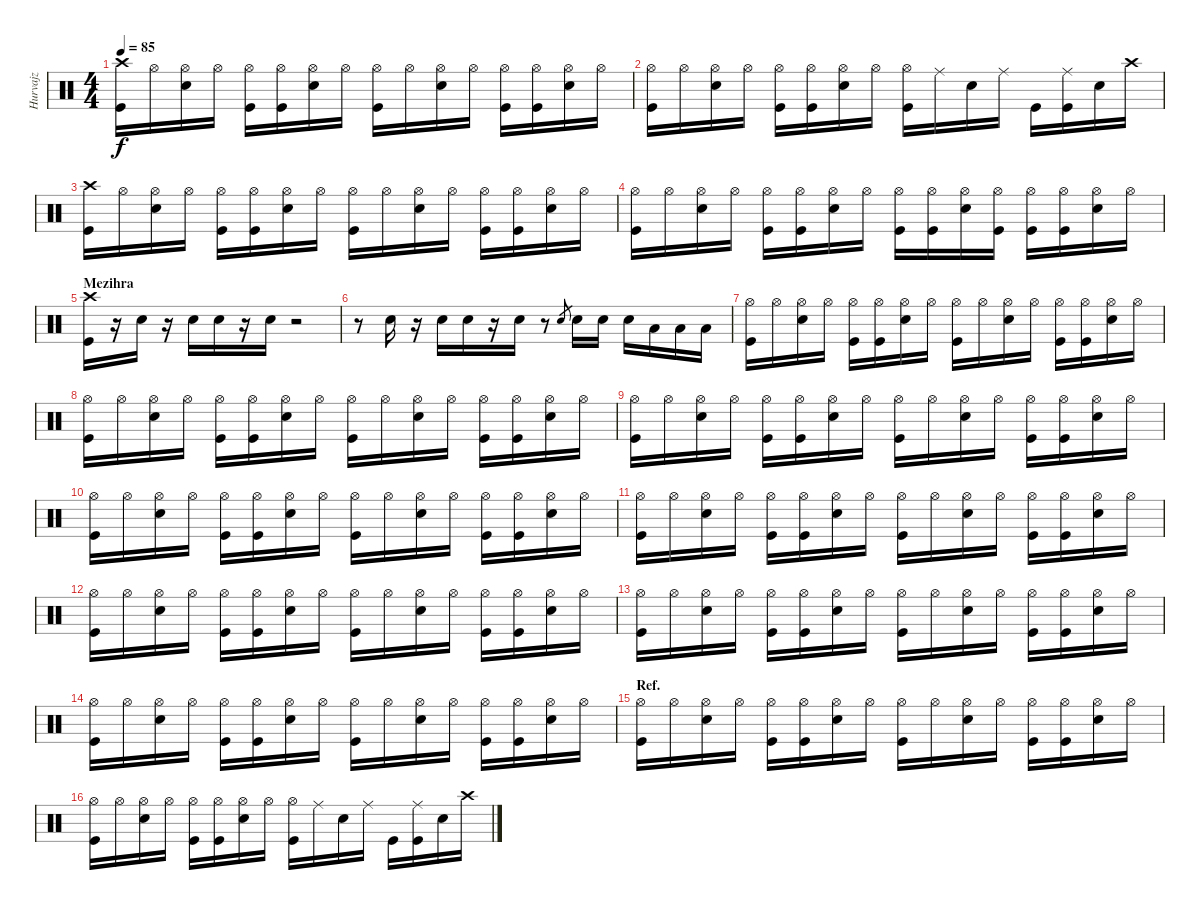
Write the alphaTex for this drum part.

\track ("Hurvajz" "Hurvajz") {instrument percussion}
\staff {score}
\articulation defaults
\ts (4 4)
\tempo 85
\clef neutral
\ks c
("Crash high (hit)" "Kick (hit)").16{dy f} "Hi-Hat (open)".16 ("Hi-Hat (open)" "Snare (hit) 2").16 "Hi-Hat (open)".16 ("Hi-Hat (open)" "Kick (hit)").16 ("Hi-Hat (open)" "Kick (hit)").16 ("Hi-Hat (open)" "Snare (hit) 2").16 "Hi-Hat (open)".16 ("Hi-Hat (open)" "Kick (hit)").16 "Hi-Hat (open)".16 ("Hi-Hat (open)" "Snare (hit) 2").16 "Hi-Hat (open)".16 ("Hi-Hat (open)" "Kick (hit)").16 ("Hi-Hat (open)" "Kick (hit)").16 ("Hi-Hat (open)" "Snare (hit) 2").16 "Hi-Hat (open)".16 |
("Hi-Hat (open)" "Kick (hit)").16 "Hi-Hat (open)".16 ("Hi-Hat (open)" "Snare (hit) 2").16 "Hi-Hat (open)".16 ("Hi-Hat (open)" "Kick (hit)").16 ("Hi-Hat (open)" "Kick (hit)").16 ("Hi-Hat (open)" "Snare (hit) 2").16 "Hi-Hat (open)".16 ("Hi-Hat (open)" "Kick (hit)").16 "Ride (middle)".16 "Snare (hit) 2".16 "Ride (middle)".16 "Kick (hit)".16 ("Ride (middle)" "Kick (hit)").16 "Snare (hit) 2".16 "Crash high (hit)".16 |
("Crash high (hit)" "Kick (hit)").16 "Hi-Hat (open)".16 ("Hi-Hat (open)" "Snare (hit) 2").16 "Hi-Hat (open)".16 ("Hi-Hat (open)" "Kick (hit)").16 ("Hi-Hat (open)" "Kick (hit)").16 ("Hi-Hat (open)" "Snare (hit) 2").16 "Hi-Hat (open)".16 ("Hi-Hat (open)" "Kick (hit)").16 "Hi-Hat (open)".16 ("Hi-Hat (open)" "Snare (hit) 2").16 "Hi-Hat (open)".16 ("Hi-Hat (open)" "Kick (hit)").16 ("Hi-Hat (open)" "Kick (hit)").16 ("Hi-Hat (open)" "Snare (hit) 2").16 "Hi-Hat (open)".16 |
("Hi-Hat (open)" "Kick (hit)").16 "Hi-Hat (open)".16 ("Hi-Hat (open)" "Snare (hit) 2").16 "Hi-Hat (open)".16 ("Hi-Hat (open)" "Kick (hit)").16 ("Hi-Hat (open)" "Kick (hit)").16 ("Hi-Hat (open)" "Snare (hit) 2").16 "Hi-Hat (open)".16 ("Hi-Hat (open)" "Kick (hit)").16 ("Hi-Hat (open)" "Kick (hit)").16 ("Hi-Hat (open)" "Snare (hit) 2").16 ("Hi-Hat (open)" "Kick (hit)").16 ("Hi-Hat (open)" "Kick (hit)").16 ("Hi-Hat (open)" "Kick (hit)").16 ("Hi-Hat (open)" "Snare (hit) 2").16 "Hi-Hat (open)".16 |
\section ("" "Mezihra")
("Crash high (hit)" "Kick (hit)").16 r.16 "Snare (hit) 2".16 r.16 "Snare (hit) 2".16 "Snare (hit) 2".16 r.16 "Snare (hit) 2".16 r.2 |
r.8 "Snare (hit) 2".16 r.16 "Snare (hit) 2".16 "Snare (hit) 2".16 r.16 "Snare (hit) 2".16 r.8 "Snare (hit) 2".8{gr} "Snare (hit) 2".16 "Snare (hit) 2".16 "Snare (hit) 2".16 "Low Tom (hit)".16 "Low Tom (hit)".16 "Low Tom (hit)".16 |
("Hi-Hat (open)" "Kick (hit)").16 "Hi-Hat (open)".16 ("Hi-Hat (open)" "Snare (hit) 2").16 "Hi-Hat (open)".16 ("Hi-Hat (open)" "Kick (hit)").16 ("Hi-Hat (open)" "Kick (hit)").16 ("Hi-Hat (open)" "Snare (hit) 2").16 "Hi-Hat (open)".16 ("Hi-Hat (open)" "Kick (hit)").16 "Hi-Hat (open)".16 ("Hi-Hat (open)" "Snare (hit) 2").16 "Hi-Hat (open)".16 ("Hi-Hat (open)" "Kick (hit)").16 ("Hi-Hat (open)" "Kick (hit)").16 ("Hi-Hat (open)" "Snare (hit) 2").16 "Hi-Hat (open)".16 |
("Hi-Hat (open)" "Kick (hit)").16 "Hi-Hat (open)".16 ("Hi-Hat (open)" "Snare (hit) 2").16 "Hi-Hat (open)".16 ("Hi-Hat (open)" "Kick (hit)").16 ("Hi-Hat (open)" "Kick (hit)").16 ("Hi-Hat (open)" "Snare (hit) 2").16 "Hi-Hat (open)".16 ("Hi-Hat (open)" "Kick (hit)").16 "Hi-Hat (open)".16 ("Hi-Hat (open)" "Snare (hit) 2").16 "Hi-Hat (open)".16 ("Hi-Hat (open)" "Kick (hit)").16 ("Hi-Hat (open)" "Kick (hit)").16 ("Hi-Hat (open)" "Snare (hit) 2").16 "Hi-Hat (open)".16 |
("Hi-Hat (open)" "Kick (hit)").16 "Hi-Hat (open)".16 ("Hi-Hat (open)" "Snare (hit) 2").16 "Hi-Hat (open)".16 ("Hi-Hat (open)" "Kick (hit)").16 ("Hi-Hat (open)" "Kick (hit)").16 ("Hi-Hat (open)" "Snare (hit) 2").16 "Hi-Hat (open)".16 ("Hi-Hat (open)" "Kick (hit)").16 "Hi-Hat (open)".16 ("Hi-Hat (open)" "Snare (hit) 2").16 "Hi-Hat (open)".16 ("Hi-Hat (open)" "Kick (hit)").16 ("Hi-Hat (open)" "Kick (hit)").16 ("Hi-Hat (open)" "Snare (hit) 2").16 "Hi-Hat (open)".16 |
("Hi-Hat (open)" "Kick (hit)").16 "Hi-Hat (open)".16 ("Hi-Hat (open)" "Snare (hit) 2").16 "Hi-Hat (open)".16 ("Hi-Hat (open)" "Kick (hit)").16 ("Hi-Hat (open)" "Kick (hit)").16 ("Hi-Hat (open)" "Snare (hit) 2").16 "Hi-Hat (open)".16 ("Hi-Hat (open)" "Kick (hit)").16 "Hi-Hat (open)".16 ("Hi-Hat (open)" "Snare (hit) 2").16 "Hi-Hat (open)".16 ("Hi-Hat (open)" "Kick (hit)").16 ("Hi-Hat (open)" "Kick (hit)").16 ("Hi-Hat (open)" "Snare (hit) 2").16 "Hi-Hat (open)".16 |
("Hi-Hat (open)" "Kick (hit)").16 "Hi-Hat (open)".16 ("Hi-Hat (open)" "Snare (hit) 2").16 "Hi-Hat (open)".16 ("Hi-Hat (open)" "Kick (hit)").16 ("Hi-Hat (open)" "Kick (hit)").16 ("Hi-Hat (open)" "Snare (hit) 2").16 "Hi-Hat (open)".16 ("Hi-Hat (open)" "Kick (hit)").16 "Hi-Hat (open)".16 ("Hi-Hat (open)" "Snare (hit) 2").16 "Hi-Hat (open)".16 ("Hi-Hat (open)" "Kick (hit)").16 ("Hi-Hat (open)" "Kick (hit)").16 ("Hi-Hat (open)" "Snare (hit) 2").16 "Hi-Hat (open)".16 |
("Hi-Hat (open)" "Kick (hit)").16 "Hi-Hat (open)".16 ("Hi-Hat (open)" "Snare (hit) 2").16 "Hi-Hat (open)".16 ("Hi-Hat (open)" "Kick (hit)").16 ("Hi-Hat (open)" "Kick (hit)").16 ("Hi-Hat (open)" "Snare (hit) 2").16 "Hi-Hat (open)".16 ("Hi-Hat (open)" "Kick (hit)").16 "Hi-Hat (open)".16 ("Hi-Hat (open)" "Snare (hit) 2").16 "Hi-Hat (open)".16 ("Hi-Hat (open)" "Kick (hit)").16 ("Hi-Hat (open)" "Kick (hit)").16 ("Hi-Hat (open)" "Snare (hit) 2").16 "Hi-Hat (open)".16 |
("Hi-Hat (open)" "Kick (hit)").16 "Hi-Hat (open)".16 ("Hi-Hat (open)" "Snare (hit) 2").16 "Hi-Hat (open)".16 ("Hi-Hat (open)" "Kick (hit)").16 ("Hi-Hat (open)" "Kick (hit)").16 ("Hi-Hat (open)" "Snare (hit) 2").16 "Hi-Hat (open)".16 ("Hi-Hat (open)" "Kick (hit)").16 "Hi-Hat (open)".16 ("Hi-Hat (open)" "Snare (hit) 2").16 "Hi-Hat (open)".16 ("Hi-Hat (open)" "Kick (hit)").16 ("Hi-Hat (open)" "Kick (hit)").16 ("Hi-Hat (open)" "Snare (hit) 2").16 "Hi-Hat (open)".16 |
("Hi-Hat (open)" "Kick (hit)").16 "Hi-Hat (open)".16 ("Hi-Hat (open)" "Snare (hit) 2").16 "Hi-Hat (open)".16 ("Hi-Hat (open)" "Kick (hit)").16 ("Hi-Hat (open)" "Kick (hit)").16 ("Hi-Hat (open)" "Snare (hit) 2").16 "Hi-Hat (open)".16 ("Hi-Hat (open)" "Kick (hit)").16 "Hi-Hat (open)".16 ("Hi-Hat (open)" "Snare (hit) 2").16 "Hi-Hat (open)".16 ("Hi-Hat (open)" "Kick (hit)").16 ("Hi-Hat (open)" "Kick (hit)").16 ("Hi-Hat (open)" "Snare (hit) 2").16 "Hi-Hat (open)".16 |
\section ("" "Ref.")
("Hi-Hat (open)" "Kick (hit)").16 "Hi-Hat (open)".16 ("Hi-Hat (open)" "Snare (hit) 2").16 "Hi-Hat (open)".16 ("Hi-Hat (open)" "Kick (hit)").16 ("Hi-Hat (open)" "Kick (hit)").16 ("Hi-Hat (open)" "Snare (hit) 2").16 "Hi-Hat (open)".16 ("Hi-Hat (open)" "Kick (hit)").16 "Hi-Hat (open)".16 ("Hi-Hat (open)" "Snare (hit) 2").16 "Hi-Hat (open)".16 ("Hi-Hat (open)" "Kick (hit)").16 ("Hi-Hat (open)" "Kick (hit)").16 ("Hi-Hat (open)" "Snare (hit) 2").16 "Hi-Hat (open)".16 |
("Hi-Hat (open)" "Kick (hit)").16 "Hi-Hat (open)".16 ("Hi-Hat (open)" "Snare (hit) 2").16 "Hi-Hat (open)".16 ("Hi-Hat (open)" "Kick (hit)").16 ("Hi-Hat (open)" "Kick (hit)").16 ("Hi-Hat (open)" "Snare (hit) 2").16 "Hi-Hat (open)".16 ("Hi-Hat (open)" "Kick (hit)").16 "Ride (middle)".16 "Snare (hit) 2".16 "Ride (middle)".16 "Kick (hit)".16 ("Ride (middle)" "Kick (hit)").16 "Snare (hit) 2".16 "Crash high (hit)".16
